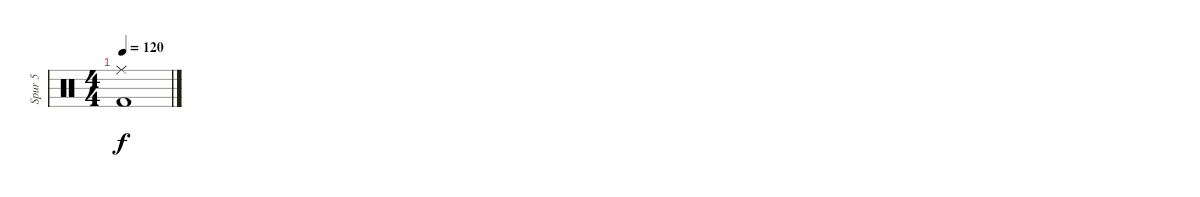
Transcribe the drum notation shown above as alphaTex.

\track ("Spur 5" "Spur 5") {instrument percussion}
\staff {score}
\articulation defaults
\ts (4 4)
\tempo 120
\clef neutral
\ks c
("Ride (middle)" "Kick (hit) 2").1{dy f}
